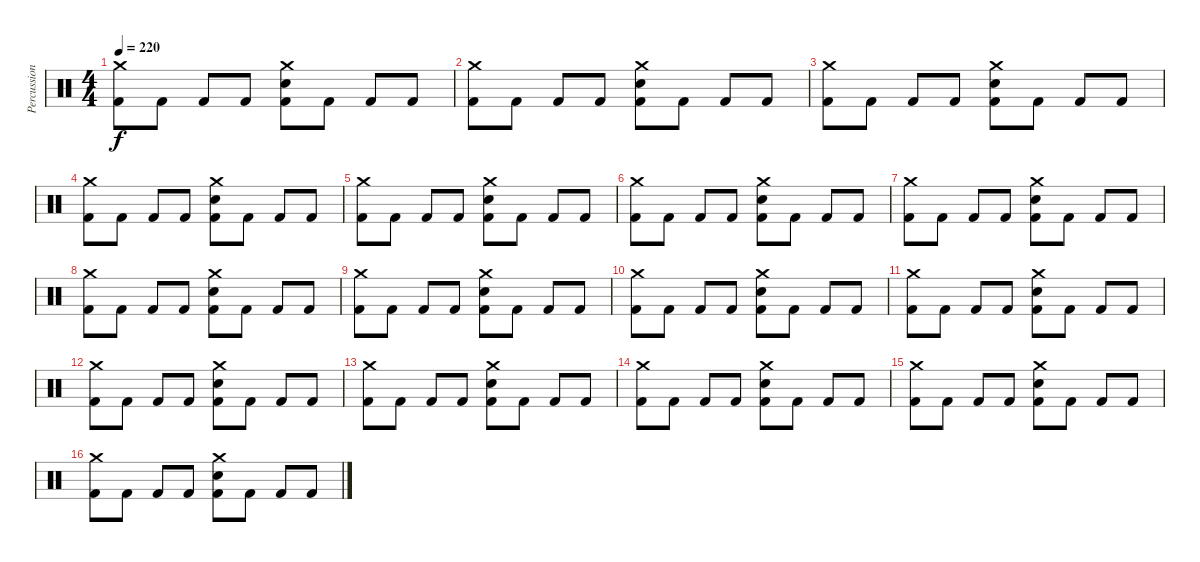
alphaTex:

\track ("Percussion" "Percussion") {instrument percussion}
\staff {score}
\articulation defaults
\ts (4 4)
\tempo 220
\clef neutral
\ks c
("Crash medium (hit)" "Kick (hit) 2").8{dy f} "Kick (hit) 2".8 "Kick (hit) 2".8 "Kick (hit) 2".8 ("Crash medium (hit)" "Snare (hit) 2" "Kick (hit) 2").8 "Kick (hit) 2".8 "Kick (hit) 2".8 "Kick (hit) 2".8 |
("Crash medium (hit)" "Kick (hit) 2").8 "Kick (hit) 2".8 "Kick (hit) 2".8 "Kick (hit) 2".8 ("Crash medium (hit)" "Snare (hit) 2" "Kick (hit) 2").8 "Kick (hit) 2".8 "Kick (hit) 2".8 "Kick (hit) 2".8 |
("Crash medium (hit)" "Kick (hit) 2").8 "Kick (hit) 2".8 "Kick (hit) 2".8 "Kick (hit) 2".8 ("Crash medium (hit)" "Snare (hit) 2" "Kick (hit) 2").8 "Kick (hit) 2".8 "Kick (hit) 2".8 "Kick (hit) 2".8 |
("Crash medium (hit)" "Kick (hit) 2").8 "Kick (hit) 2".8 "Kick (hit) 2".8 "Kick (hit) 2".8 ("Crash medium (hit)" "Snare (hit) 2" "Kick (hit) 2").8 "Kick (hit) 2".8 "Kick (hit) 2".8 "Kick (hit) 2".8 |
("Crash medium (hit)" "Kick (hit) 2").8 "Kick (hit) 2".8 "Kick (hit) 2".8 "Kick (hit) 2".8 ("Crash medium (hit)" "Snare (hit) 2" "Kick (hit) 2").8 "Kick (hit) 2".8 "Kick (hit) 2".8 "Kick (hit) 2".8 |
("Crash medium (hit)" "Kick (hit) 2").8 "Kick (hit) 2".8 "Kick (hit) 2".8 "Kick (hit) 2".8 ("Crash medium (hit)" "Snare (hit) 2" "Kick (hit) 2").8 "Kick (hit) 2".8 "Kick (hit) 2".8 "Kick (hit) 2".8 |
("Crash medium (hit)" "Kick (hit) 2").8 "Kick (hit) 2".8 "Kick (hit) 2".8 "Kick (hit) 2".8 ("Crash medium (hit)" "Snare (hit) 2" "Kick (hit) 2").8 "Kick (hit) 2".8 "Kick (hit) 2".8 "Kick (hit) 2".8 |
("Crash medium (hit)" "Kick (hit) 2").8 "Kick (hit) 2".8 "Kick (hit) 2".8 "Kick (hit) 2".8 ("Crash medium (hit)" "Snare (hit) 2" "Kick (hit) 2").8 "Kick (hit) 2".8 "Kick (hit) 2".8 "Kick (hit) 2".8 |
("Crash medium (hit)" "Kick (hit) 2").8 "Kick (hit) 2".8 "Kick (hit) 2".8 "Kick (hit) 2".8 ("Crash medium (hit)" "Snare (hit) 2" "Kick (hit) 2").8 "Kick (hit) 2".8 "Kick (hit) 2".8 "Kick (hit) 2".8 |
("Crash medium (hit)" "Kick (hit) 2").8 "Kick (hit) 2".8 "Kick (hit) 2".8 "Kick (hit) 2".8 ("Crash medium (hit)" "Snare (hit) 2" "Kick (hit) 2").8 "Kick (hit) 2".8 "Kick (hit) 2".8 "Kick (hit) 2".8 |
("Crash medium (hit)" "Kick (hit) 2").8 "Kick (hit) 2".8 "Kick (hit) 2".8 "Kick (hit) 2".8 ("Crash medium (hit)" "Snare (hit) 2" "Kick (hit) 2").8 "Kick (hit) 2".8 "Kick (hit) 2".8 "Kick (hit) 2".8 |
("Crash medium (hit)" "Kick (hit) 2").8 "Kick (hit) 2".8 "Kick (hit) 2".8 "Kick (hit) 2".8 ("Crash medium (hit)" "Snare (hit) 2" "Kick (hit) 2").8 "Kick (hit) 2".8 "Kick (hit) 2".8 "Kick (hit) 2".8 |
("Crash medium (hit)" "Kick (hit) 2").8 "Kick (hit) 2".8 "Kick (hit) 2".8 "Kick (hit) 2".8 ("Crash medium (hit)" "Snare (hit) 2" "Kick (hit) 2").8 "Kick (hit) 2".8 "Kick (hit) 2".8 "Kick (hit) 2".8 |
("Crash medium (hit)" "Kick (hit) 2").8 "Kick (hit) 2".8 "Kick (hit) 2".8 "Kick (hit) 2".8 ("Crash medium (hit)" "Snare (hit) 2" "Kick (hit) 2").8 "Kick (hit) 2".8 "Kick (hit) 2".8 "Kick (hit) 2".8 |
("Crash medium (hit)" "Kick (hit) 2").8 "Kick (hit) 2".8 "Kick (hit) 2".8 "Kick (hit) 2".8 ("Crash medium (hit)" "Snare (hit) 2" "Kick (hit) 2").8 "Kick (hit) 2".8 "Kick (hit) 2".8 "Kick (hit) 2".8 |
("Crash medium (hit)" "Kick (hit) 2").8 "Kick (hit) 2".8 "Kick (hit) 2".8 "Kick (hit) 2".8 ("Crash medium (hit)" "Snare (hit) 2" "Kick (hit) 2").8 "Kick (hit) 2".8 "Kick (hit) 2".8 "Kick (hit) 2".8
